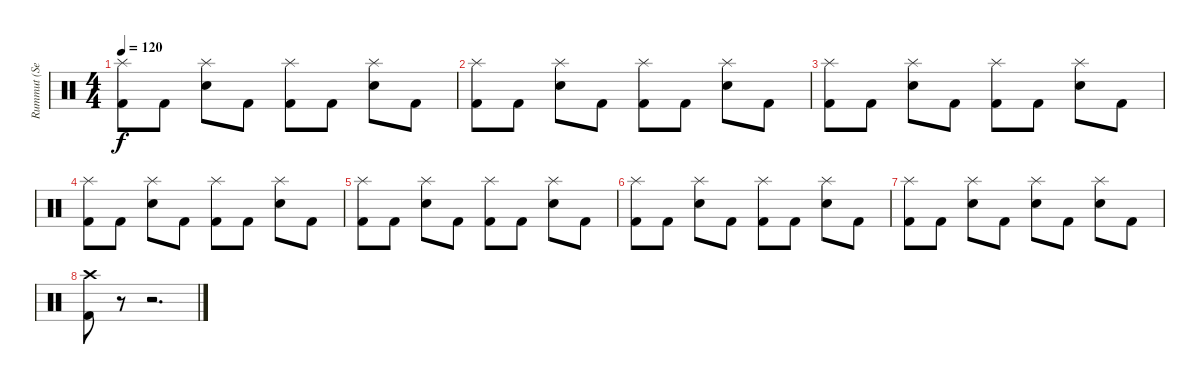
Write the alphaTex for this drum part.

\track ("Rummut (Seppo Pohjolainen)" "Rummut (Se") {instrument percussion}
\staff {score}
\articulation defaults
\ts (4 4)
\tempo 120
\clef neutral
\ks c
("Splash (hit)" "Kick (hit) 2").8{dy f} "Kick (hit) 2".8 ("Splash (hit)" "Electric Snare (hit)").8 "Kick (hit) 2".8 ("Splash (hit)" "Kick (hit) 2").8 "Kick (hit) 2".8 ("Splash (hit)" "Electric Snare (hit)").8 "Kick (hit) 2".8 |
("Splash (hit)" "Kick (hit) 2").8 "Kick (hit) 2".8 ("Splash (hit)" "Electric Snare (hit)").8 "Kick (hit) 2".8 ("Splash (hit)" "Kick (hit) 2").8 "Kick (hit) 2".8 ("Splash (hit)" "Electric Snare (hit)").8 "Kick (hit) 2".8 |
("Splash (hit)" "Kick (hit) 2").8 "Kick (hit) 2".8 ("Splash (hit)" "Electric Snare (hit)").8 "Kick (hit) 2".8 ("Splash (hit)" "Kick (hit) 2").8 "Kick (hit) 2".8 ("Splash (hit)" "Electric Snare (hit)").8 "Kick (hit) 2".8 |
("Splash (hit)" "Kick (hit) 2").8 "Kick (hit) 2".8 ("Splash (hit)" "Electric Snare (hit)").8 "Kick (hit) 2".8 ("Splash (hit)" "Kick (hit) 2").8 "Kick (hit) 2".8 ("Splash (hit)" "Electric Snare (hit)").8 "Kick (hit) 2".8 |
("Splash (hit)" "Kick (hit) 2").8 "Kick (hit) 2".8 ("Splash (hit)" "Electric Snare (hit)").8 "Kick (hit) 2".8 ("Splash (hit)" "Kick (hit) 2").8 "Kick (hit) 2".8 ("Splash (hit)" "Electric Snare (hit)").8 "Kick (hit) 2".8 |
("Splash (hit)" "Kick (hit) 2").8 "Kick (hit) 2".8 ("Splash (hit)" "Electric Snare (hit)").8 "Kick (hit) 2".8 ("Splash (hit)" "Kick (hit) 2").8 "Kick (hit) 2".8 ("Splash (hit)" "Electric Snare (hit)").8 "Kick (hit) 2".8 |
("Splash (hit)" "Kick (hit) 2").8 "Kick (hit) 2".8 ("Splash (hit)" "Electric Snare (hit)").8 "Kick (hit) 2".8 ("Splash (hit)" "Electric Snare (hit)").8 "Kick (hit) 2".8 ("Splash (hit)" "Electric Snare (hit)").8 "Kick (hit) 2".8 |
("Crash high (hit)" "Kick (hit) 2").8 r.8 r.2{d}
